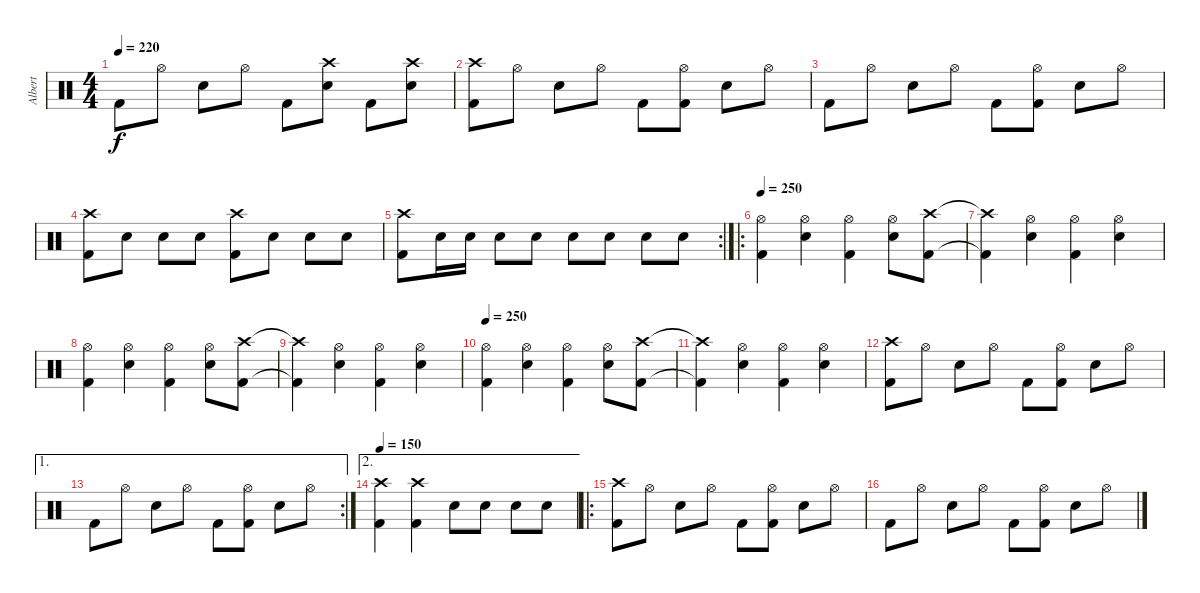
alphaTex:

\track ("Albert" "Albert") {instrument percussion}
\staff {score}
\articulation defaults
\ts (4 4)
\tempo 220
\clef neutral
\ks c "Kick (hit) 2".8{dy f} "Hi-Hat (open)".8 "Electric Snare (hit)".8 "Hi-Hat (open)".8 "Kick (hit) 2".8
("Crash high (hit)" "Electric Snare (hit)").8 "Kick (hit) 2".8 ("Crash high (hit)" "Electric Snare (hit)").8 |
("Crash high (hit)" "Kick (hit) 2").8 "Hi-Hat (open)".8 "Electric Snare (hit)".8 "Hi-Hat (open)".8 "Kick (hit) 2".8 ("Hi-Hat (open)" "Kick (hit) 2").8 "Electric Snare (hit)".8 "Hi-Hat (open)".8 |
"Kick (hit) 2".8 "Hi-Hat (open)".8 "Electric Snare (hit)".8 "Hi-Hat (open)".8 "Kick (hit) 2".8 ("Hi-Hat (open)" "Kick (hit) 2").8 "Electric Snare (hit)".8 "Hi-Hat (open)".8 |
("Crash high (hit)" "Kick (hit) 2").8 "Electric Snare (hit)".8 "Electric Snare (hit)".8 "Electric Snare (hit)".8 ("Crash high (hit)" "Kick (hit) 2").8 "Electric Snare (hit)".8 "Electric Snare (hit)".8 "Electric Snare (hit)".8 |
\rc 2
("Crash high (hit)" "Kick (hit) 2").8 "Electric Snare (hit)".16 "Electric Snare (hit)".16 "Electric Snare (hit)".8 "Electric Snare (hit)".8 "Electric Snare (hit)".8 "Electric Snare (hit)".8 "Electric Snare (hit)".8 "Electric Snare (hit)".8 |
\ro
\tempo 250
("Hi-Hat (open)" "Kick (hit) 2").4 ("Hi-Hat (open)" "Electric Snare (hit)").4 ("Hi-Hat (open)" "Kick (hit) 2").4 ("Hi-Hat (open)" "Electric Snare (hit)").8 ("Crash high (hit)" "Kick (hit) 2").8 |
("Crash high (hit)"{t} "Kick (hit) 2"{t}).4 ("Hi-Hat (open)" "Electric Snare (hit)").4 ("Hi-Hat (open)" "Kick (hit) 2").4 ("Hi-Hat (open)" "Electric Snare (hit)").4 |
("Hi-Hat (open)" "Kick (hit) 2").4 ("Hi-Hat (open)" "Electric Snare (hit)").4 ("Hi-Hat (open)" "Kick (hit) 2").4 ("Hi-Hat (open)" "Electric Snare (hit)").8 ("Crash high (hit)" "Kick (hit) 2").8 |
("Crash high (hit)"{t} "Kick (hit) 2"{t}).4 ("Hi-Hat (open)" "Electric Snare (hit)").4 ("Hi-Hat (open)" "Kick (hit) 2").4 ("Hi-Hat (open)" "Electric Snare (hit)").4 |
\tempo 250
("Hi-Hat (open)" "Kick (hit) 2").4 ("Hi-Hat (open)" "Electric Snare (hit)").4 ("Hi-Hat (open)" "Kick (hit) 2").4 ("Hi-Hat (open)" "Electric Snare (hit)").8 ("Crash high (hit)" "Kick (hit) 2").8 |
("Crash high (hit)"{t} "Kick (hit) 2"{t}).4 ("Hi-Hat (open)" "Electric Snare (hit)").4 ("Hi-Hat (open)" "Kick (hit) 2").4 ("Hi-Hat (open)" "Electric Snare (hit)").4 |
("Crash high (hit)" "Kick (hit) 2").8 "Hi-Hat (open)".8 "Electric Snare (hit)".8 "Hi-Hat (open)".8 "Kick (hit) 2".8 ("Hi-Hat (open)" "Kick (hit) 2").8 "Electric Snare (hit)".8 "Hi-Hat (open)".8 |
\ae 1
\rc 2 "Kick (hit) 2".8 "Hi-Hat (open)".8 "Electric Snare (hit)".8 "Hi-Hat (open)".8 "Kick (hit) 2".8
("Hi-Hat (open)" "Kick (hit) 2").8 "Electric Snare (hit)".8 "Hi-Hat (open)".8 |
\ae 2
\tempo 150
("Crash high (hit)" "Kick (hit) 2").4 ("Crash high (hit)" "Kick (hit) 2").4 "Electric Snare (hit)".8 "Electric Snare (hit)".8 "Electric Snare (hit)".8 "Electric Snare (hit)".8 |
\ro
("Crash high (hit)" "Kick (hit) 2").8 "Hi-Hat (open)".8 "Electric Snare (hit)".8 "Hi-Hat (open)".8 "Kick (hit) 2".8 ("Hi-Hat (open)" "Kick (hit) 2").8 "Electric Snare (hit)".8 "Hi-Hat (open)".8 |
"Kick (hit) 2".8 "Hi-Hat (open)".8 "Electric Snare (hit)".8 "Hi-Hat (open)".8 "Kick (hit) 2".8 ("Hi-Hat (open)" "Kick (hit) 2").8 "Electric Snare (hit)".8 "Hi-Hat (open)".8
